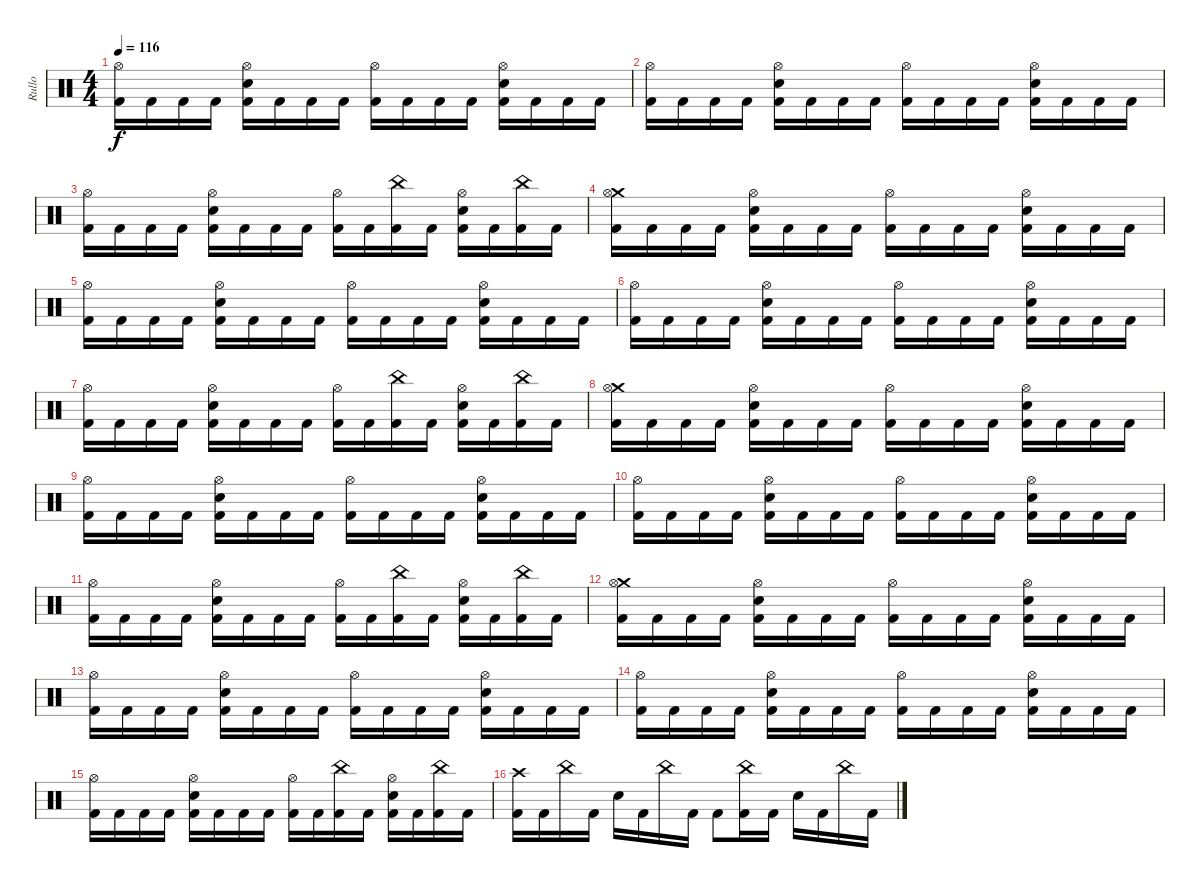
\track ("Rullo" "Rullo") {instrument percussion}
\staff {score}
\articulation defaults
\ts (4 4)
\tempo 116
\clef neutral
\ks c
("Hi-Hat (open)" "Kick (hit) 2").16{dy f} "Kick (hit) 2".16 "Kick (hit) 2".16 "Kick (hit) 2".16 ("Hi-Hat (open)" "Electric Snare (hit)" "Kick (hit) 2").16 "Kick (hit) 2".16 "Kick (hit) 2".16 "Kick (hit) 2".16 ("Hi-Hat (open)" "Kick (hit) 2").16 "Kick (hit) 2".16 "Kick (hit) 2".16 "Kick (hit) 2".16 ("Hi-Hat (open)" "Electric Snare (hit)" "Kick (hit) 2").16 "Kick (hit) 2".16 "Kick (hit) 2".16 "Kick (hit) 2".16 |
("Hi-Hat (open)" "Kick (hit) 2").16 "Kick (hit) 2".16 "Kick (hit) 2".16 "Kick (hit) 2".16 ("Hi-Hat (open)" "Electric Snare (hit)" "Kick (hit) 2").16 "Kick (hit) 2".16 "Kick (hit) 2".16 "Kick (hit) 2".16 ("Hi-Hat (open)" "Kick (hit) 2").16 "Kick (hit) 2".16 "Kick (hit) 2".16 "Kick (hit) 2".16 ("Hi-Hat (open)" "Electric Snare (hit)" "Kick (hit) 2").16 "Kick (hit) 2".16 "Kick (hit) 2".16 "Kick (hit) 2".16 |
("Hi-Hat (open)" "Kick (hit) 2").16 "Kick (hit) 2".16 "Kick (hit) 2".16 "Kick (hit) 2".16 ("Hi-Hat (open)" "Electric Snare (hit)" "Kick (hit) 2").16 "Kick (hit) 2".16 "Kick (hit) 2".16 "Kick (hit) 2".16 ("Hi-Hat (open)" "Kick (hit) 2").16 "Kick (hit) 2".16 ("China (hit)" "Kick (hit) 2").16 "Kick (hit) 2".16 ("Hi-Hat (open)" "Electric Snare (hit)" "Kick (hit) 2").16 "Kick (hit) 2".16 ("China (hit)" "Kick (hit) 2").16 "Kick (hit) 2".16 |
("Crash medium (hit)" "Hi-Hat (open)" "Kick (hit) 2").16 "Kick (hit) 2".16 "Kick (hit) 2".16 "Kick (hit) 2".16 ("Hi-Hat (open)" "Electric Snare (hit)" "Kick (hit) 2").16 "Kick (hit) 2".16 "Kick (hit) 2".16 "Kick (hit) 2".16 ("Hi-Hat (open)" "Kick (hit) 2").16 "Kick (hit) 2".16 "Kick (hit) 2".16 "Kick (hit) 2".16 ("Hi-Hat (open)" "Electric Snare (hit)" "Kick (hit) 2").16 "Kick (hit) 2".16 "Kick (hit) 2".16 "Kick (hit) 2".16 |
("Hi-Hat (open)" "Kick (hit) 2").16 "Kick (hit) 2".16 "Kick (hit) 2".16 "Kick (hit) 2".16 ("Hi-Hat (open)" "Electric Snare (hit)" "Kick (hit) 2").16 "Kick (hit) 2".16 "Kick (hit) 2".16 "Kick (hit) 2".16 ("Hi-Hat (open)" "Kick (hit) 2").16 "Kick (hit) 2".16 "Kick (hit) 2".16 "Kick (hit) 2".16 ("Hi-Hat (open)" "Electric Snare (hit)" "Kick (hit) 2").16 "Kick (hit) 2".16 "Kick (hit) 2".16 "Kick (hit) 2".16 |
("Hi-Hat (open)" "Kick (hit) 2").16 "Kick (hit) 2".16 "Kick (hit) 2".16 "Kick (hit) 2".16 ("Hi-Hat (open)" "Electric Snare (hit)" "Kick (hit) 2").16 "Kick (hit) 2".16 "Kick (hit) 2".16 "Kick (hit) 2".16 ("Hi-Hat (open)" "Kick (hit) 2").16 "Kick (hit) 2".16 "Kick (hit) 2".16 "Kick (hit) 2".16 ("Hi-Hat (open)" "Electric Snare (hit)" "Kick (hit) 2").16 "Kick (hit) 2".16 "Kick (hit) 2".16 "Kick (hit) 2".16 |
("Hi-Hat (open)" "Kick (hit) 2").16 "Kick (hit) 2".16 "Kick (hit) 2".16 "Kick (hit) 2".16 ("Hi-Hat (open)" "Electric Snare (hit)" "Kick (hit) 2").16 "Kick (hit) 2".16 "Kick (hit) 2".16 "Kick (hit) 2".16 ("Hi-Hat (open)" "Kick (hit) 2").16 "Kick (hit) 2".16 ("China (hit)" "Kick (hit) 2").16 "Kick (hit) 2".16 ("Hi-Hat (open)" "Electric Snare (hit)" "Kick (hit) 2").16 "Kick (hit) 2".16 ("China (hit)" "Kick (hit) 2").16 "Kick (hit) 2".16 |
("Crash medium (hit)" "Hi-Hat (open)" "Kick (hit) 2").16 "Kick (hit) 2".16 "Kick (hit) 2".16 "Kick (hit) 2".16 ("Hi-Hat (open)" "Electric Snare (hit)" "Kick (hit) 2").16 "Kick (hit) 2".16 "Kick (hit) 2".16 "Kick (hit) 2".16 ("Hi-Hat (open)" "Kick (hit) 2").16 "Kick (hit) 2".16 "Kick (hit) 2".16 "Kick (hit) 2".16 ("Hi-Hat (open)" "Electric Snare (hit)" "Kick (hit) 2").16 "Kick (hit) 2".16 "Kick (hit) 2".16 "Kick (hit) 2".16 |
("Hi-Hat (open)" "Kick (hit) 2").16 "Kick (hit) 2".16 "Kick (hit) 2".16 "Kick (hit) 2".16 ("Hi-Hat (open)" "Electric Snare (hit)" "Kick (hit) 2").16 "Kick (hit) 2".16 "Kick (hit) 2".16 "Kick (hit) 2".16 ("Hi-Hat (open)" "Kick (hit) 2").16 "Kick (hit) 2".16 "Kick (hit) 2".16 "Kick (hit) 2".16 ("Hi-Hat (open)" "Electric Snare (hit)" "Kick (hit) 2").16 "Kick (hit) 2".16 "Kick (hit) 2".16 "Kick (hit) 2".16 |
("Hi-Hat (open)" "Kick (hit) 2").16 "Kick (hit) 2".16 "Kick (hit) 2".16 "Kick (hit) 2".16 ("Hi-Hat (open)" "Electric Snare (hit)" "Kick (hit) 2").16 "Kick (hit) 2".16 "Kick (hit) 2".16 "Kick (hit) 2".16 ("Hi-Hat (open)" "Kick (hit) 2").16 "Kick (hit) 2".16 "Kick (hit) 2".16 "Kick (hit) 2".16 ("Hi-Hat (open)" "Electric Snare (hit)" "Kick (hit) 2").16 "Kick (hit) 2".16 "Kick (hit) 2".16 "Kick (hit) 2".16 |
("Hi-Hat (open)" "Kick (hit) 2").16 "Kick (hit) 2".16 "Kick (hit) 2".16 "Kick (hit) 2".16 ("Hi-Hat (open)" "Electric Snare (hit)" "Kick (hit) 2").16 "Kick (hit) 2".16 "Kick (hit) 2".16 "Kick (hit) 2".16 ("Hi-Hat (open)" "Kick (hit) 2").16 "Kick (hit) 2".16 ("China (hit)" "Kick (hit) 2").16 "Kick (hit) 2".16 ("Hi-Hat (open)" "Electric Snare (hit)" "Kick (hit) 2").16 "Kick (hit) 2".16 ("China (hit)" "Kick (hit) 2").16 "Kick (hit) 2".16 |
("Crash medium (hit)" "Hi-Hat (open)" "Kick (hit) 2").16 "Kick (hit) 2".16 "Kick (hit) 2".16 "Kick (hit) 2".16 ("Hi-Hat (open)" "Electric Snare (hit)" "Kick (hit) 2").16 "Kick (hit) 2".16 "Kick (hit) 2".16 "Kick (hit) 2".16 ("Hi-Hat (open)" "Kick (hit) 2").16 "Kick (hit) 2".16 "Kick (hit) 2".16 "Kick (hit) 2".16 ("Hi-Hat (open)" "Electric Snare (hit)" "Kick (hit) 2").16 "Kick (hit) 2".16 "Kick (hit) 2".16 "Kick (hit) 2".16 |
("Hi-Hat (open)" "Kick (hit) 2").16 "Kick (hit) 2".16 "Kick (hit) 2".16 "Kick (hit) 2".16 ("Hi-Hat (open)" "Electric Snare (hit)" "Kick (hit) 2").16 "Kick (hit) 2".16 "Kick (hit) 2".16 "Kick (hit) 2".16 ("Hi-Hat (open)" "Kick (hit) 2").16 "Kick (hit) 2".16 "Kick (hit) 2".16 "Kick (hit) 2".16 ("Hi-Hat (open)" "Electric Snare (hit)" "Kick (hit) 2").16 "Kick (hit) 2".16 "Kick (hit) 2".16 "Kick (hit) 2".16 |
("Hi-Hat (open)" "Kick (hit) 2").16 "Kick (hit) 2".16 "Kick (hit) 2".16 "Kick (hit) 2".16 ("Hi-Hat (open)" "Electric Snare (hit)" "Kick (hit) 2").16 "Kick (hit) 2".16 "Kick (hit) 2".16 "Kick (hit) 2".16 ("Hi-Hat (open)" "Kick (hit) 2").16 "Kick (hit) 2".16 "Kick (hit) 2".16 "Kick (hit) 2".16 ("Hi-Hat (open)" "Electric Snare (hit)" "Kick (hit) 2").16 "Kick (hit) 2".16 "Kick (hit) 2".16 "Kick (hit) 2".16 |
("Hi-Hat (open)" "Kick (hit) 2").16 "Kick (hit) 2".16 "Kick (hit) 2".16 "Kick (hit) 2".16 ("Hi-Hat (open)" "Electric Snare (hit)" "Kick (hit) 2").16 "Kick (hit) 2".16 "Kick (hit) 2".16 "Kick (hit) 2".16 ("Hi-Hat (open)" "Kick (hit) 2").16 "Kick (hit) 2".16 ("China (hit)" "Kick (hit) 2").16 "Kick (hit) 2".16 ("Hi-Hat (open)" "Electric Snare (hit)" "Kick (hit) 2").16 "Kick (hit) 2".16 ("China (hit)" "Kick (hit) 2").16 "Kick (hit) 2".16 |
("Crash high (hit)" "Kick (hit) 2").16 "Kick (hit) 2".16 "China (hit)".16 "Kick (hit) 2".16 "Electric Snare (hit)".16 "Kick (hit) 2".16 "China (hit)".16 "Kick (hit) 2".16 "Kick (hit) 2".8 ("China (hit)" "Kick (hit) 2").16 "Kick (hit) 2".16 "Electric Snare (hit)".16 "Kick (hit) 2".16 "China (hit)".16 "Kick (hit) 2".16
